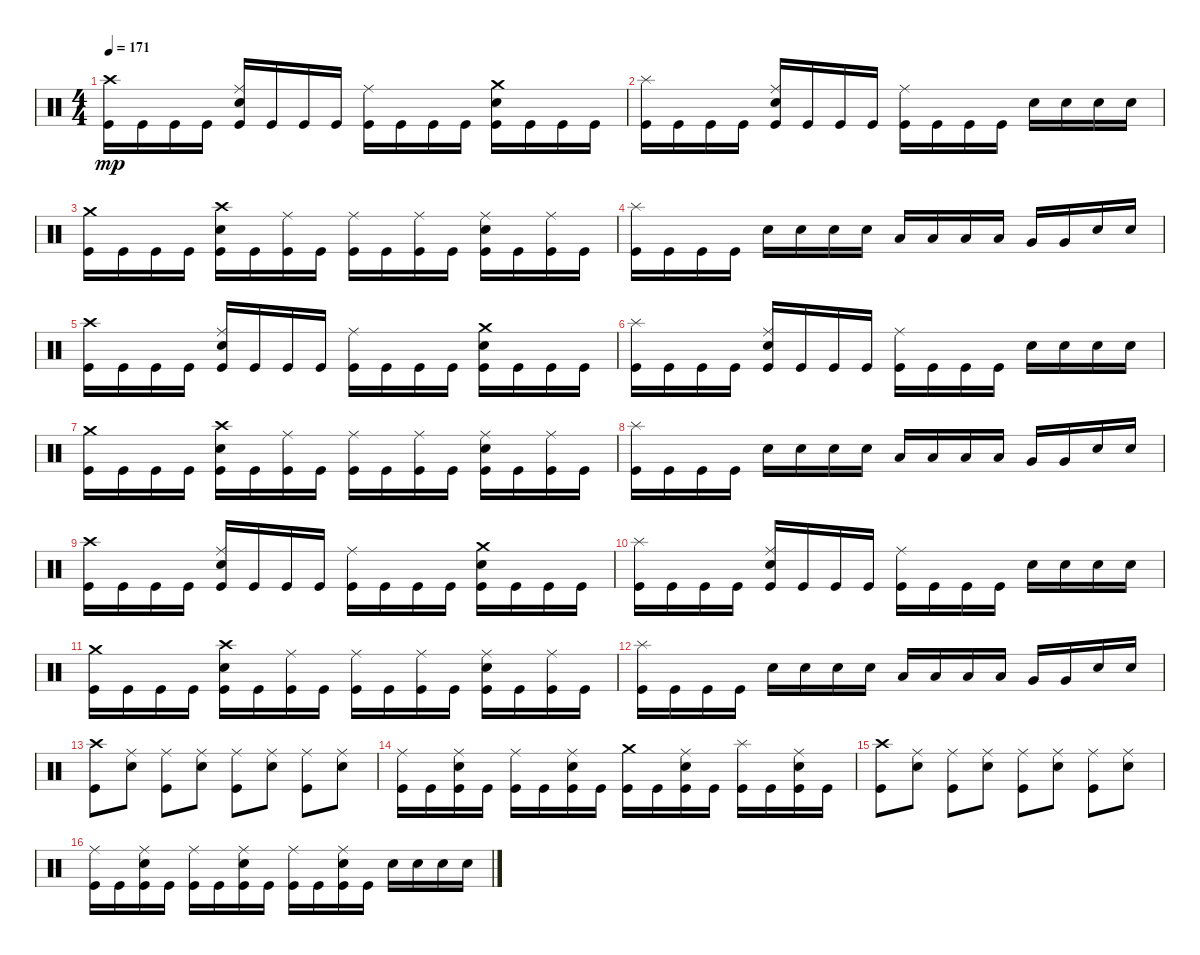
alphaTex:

\track "" {instrument percussion}
\staff {score}
\articulation defaults
\ts (4 4)
\tempo 171
\clef neutral
\ks c
("Kick (hit)" "Crash high (hit)").16{dy mp} "Kick (hit)".16 "Kick (hit)".16 "Kick (hit)".16 ("Kick (hit)" "Ride (middle)" "Snare (hit) 2").16 "Kick (hit)".16 "Kick (hit)".16 "Kick (hit)".16 ("Kick (hit)" "Ride (middle)").16 "Kick (hit)".16 "Kick (hit)".16 "Kick (hit)".16 ("Kick (hit)" "Crash medium (hit)" "Snare (hit) 2").16 "Kick (hit)".16 "Kick (hit)".16 "Kick (hit)".16 |
("Kick (hit)" "Splash (hit)").16 "Kick (hit)".16 "Kick (hit)".16 "Kick (hit)".16 ("Kick (hit)" "Snare (hit) 2" "Ride (middle)").16 "Kick (hit)".16 "Kick (hit)".16 "Kick (hit)".16 ("Kick (hit)" "Ride (middle)").16 "Kick (hit)".16 "Kick (hit)".16 "Kick (hit)".16 "Snare (hit) 2".16 "Snare (hit) 2".16 "Snare (hit) 2".16 "Snare (hit) 2".16 |
("Crash medium (hit)" "Kick (hit)").16 "Kick (hit)".16 "Kick (hit)".16 "Kick (hit)".16 ("Kick (hit)" "Snare (hit) 2" "Crash high (hit)").16 "Kick (hit)".16 ("Kick (hit)" "Ride (middle)").16 "Kick (hit)".16 ("Kick (hit)" "Ride (middle)").16 "Kick (hit)".16 ("Kick (hit)" "Ride (middle)").16 "Kick (hit)".16 ("Kick (hit)" "Snare (hit) 2" "Ride (middle)").16 "Kick (hit)".16 ("Kick (hit)" "Ride (middle)").16 "Kick (hit)".16 |
("Splash (hit)" "Kick (hit)").16 "Kick (hit)".16 "Kick (hit)".16 "Kick (hit)".16 "Snare (hit) 2".16 "Snare (hit) 2".16 "Snare (hit) 2".16 "Snare (hit) 2".16 "Low Tom (hit)".16 "Low Tom (hit)".16 "Low Tom (hit)".16 "Low Tom (hit)".16 "Very Low Tom (hit)".16 "Very Low Tom (hit)".16 "Snare (hit) 2".16 "Snare (hit) 2".16 |
("Kick (hit)" "Crash high (hit)").16 "Kick (hit)".16 "Kick (hit)".16 "Kick (hit)".16 ("Kick (hit)" "Ride (middle)" "Snare (hit) 2").16 "Kick (hit)".16 "Kick (hit)".16 "Kick (hit)".16 ("Kick (hit)" "Ride (middle)").16 "Kick (hit)".16 "Kick (hit)".16 "Kick (hit)".16 ("Kick (hit)" "Crash medium (hit)" "Snare (hit) 2").16 "Kick (hit)".16 "Kick (hit)".16 "Kick (hit)".16 |
("Kick (hit)" "Splash (hit)").16 "Kick (hit)".16 "Kick (hit)".16 "Kick (hit)".16 ("Kick (hit)" "Snare (hit) 2" "Ride (middle)").16 "Kick (hit)".16 "Kick (hit)".16 "Kick (hit)".16 ("Kick (hit)" "Ride (middle)").16 "Kick (hit)".16 "Kick (hit)".16 "Kick (hit)".16 "Snare (hit) 2".16 "Snare (hit) 2".16 "Snare (hit) 2".16 "Snare (hit) 2".16 |
("Crash medium (hit)" "Kick (hit)").16 "Kick (hit)".16 "Kick (hit)".16 "Kick (hit)".16 ("Kick (hit)" "Snare (hit) 2" "Crash high (hit)").16 "Kick (hit)".16 ("Kick (hit)" "Ride (middle)").16 "Kick (hit)".16 ("Kick (hit)" "Ride (middle)").16 "Kick (hit)".16 ("Kick (hit)" "Ride (middle)").16 "Kick (hit)".16 ("Kick (hit)" "Snare (hit) 2" "Ride (middle)").16 "Kick (hit)".16 ("Kick (hit)" "Ride (middle)").16 "Kick (hit)".16 |
("Splash (hit)" "Kick (hit)").16 "Kick (hit)".16 "Kick (hit)".16 "Kick (hit)".16 "Snare (hit) 2".16 "Snare (hit) 2".16 "Snare (hit) 2".16 "Snare (hit) 2".16 "Low Tom (hit)".16 "Low Tom (hit)".16 "Low Tom (hit)".16 "Low Tom (hit)".16 "Very Low Tom (hit)".16 "Very Low Tom (hit)".16 "Snare (hit) 2".16 "Snare (hit) 2".16 |
("Kick (hit)" "Crash high (hit)").16 "Kick (hit)".16 "Kick (hit)".16 "Kick (hit)".16 ("Kick (hit)" "Ride (middle)" "Snare (hit) 2").16 "Kick (hit)".16 "Kick (hit)".16 "Kick (hit)".16 ("Kick (hit)" "Ride (middle)").16 "Kick (hit)".16 "Kick (hit)".16 "Kick (hit)".16 ("Kick (hit)" "Crash medium (hit)" "Snare (hit) 2").16 "Kick (hit)".16 "Kick (hit)".16 "Kick (hit)".16 |
("Kick (hit)" "Splash (hit)").16 "Kick (hit)".16 "Kick (hit)".16 "Kick (hit)".16 ("Kick (hit)" "Snare (hit) 2" "Ride (middle)").16 "Kick (hit)".16 "Kick (hit)".16 "Kick (hit)".16 ("Kick (hit)" "Ride (middle)").16 "Kick (hit)".16 "Kick (hit)".16 "Kick (hit)".16 "Snare (hit) 2".16 "Snare (hit) 2".16 "Snare (hit) 2".16 "Snare (hit) 2".16 |
("Crash medium (hit)" "Kick (hit)").16 "Kick (hit)".16 "Kick (hit)".16 "Kick (hit)".16 ("Kick (hit)" "Snare (hit) 2" "Crash high (hit)").16 "Kick (hit)".16 ("Kick (hit)" "Ride (middle)").16 "Kick (hit)".16 ("Kick (hit)" "Ride (middle)").16 "Kick (hit)".16 ("Kick (hit)" "Ride (middle)").16 "Kick (hit)".16 ("Kick (hit)" "Snare (hit) 2" "Ride (middle)").16 "Kick (hit)".16 ("Kick (hit)" "Ride (middle)").16 "Kick (hit)".16 |
("Splash (hit)" "Kick (hit)").16 "Kick (hit)".16 "Kick (hit)".16 "Kick (hit)".16 "Snare (hit) 2".16 "Snare (hit) 2".16 "Snare (hit) 2".16 "Snare (hit) 2".16 "Low Tom (hit)".16 "Low Tom (hit)".16 "Low Tom (hit)".16 "Low Tom (hit)".16 "Very Low Tom (hit)".16 "Very Low Tom (hit)".16 "Snare (hit) 2".16 "Snare (hit) 2".16 |
("Kick (hit)" "Crash high (hit)").8 ("Snare (hit) 2" "Ride (middle)").8 ("Kick (hit)" "Ride (middle)").8 ("Snare (hit) 2" "Ride (middle)").8 ("Kick (hit)" "Ride (middle)").8 ("Snare (hit) 2" "Ride (middle)").8 ("Ride (middle)" "Kick (hit)").8 ("Snare (hit) 2" "Ride (middle)").8 |
("Kick (hit)" "Ride (middle)").16 "Kick (hit)".16 ("Snare (hit) 2" "Ride (middle)" "Kick (hit)").16 "Kick (hit)".16 ("Kick (hit)" "Ride (middle)").16 "Kick (hit)".16 ("Snare (hit) 2" "Ride (middle)" "Kick (hit)").16 "Kick (hit)".16 ("Kick (hit)" "Crash medium (hit)").16 "Kick (hit)".16 ("Snare (hit) 2" "Ride (middle)" "Kick (hit)").16 "Kick (hit)".16 ("Kick (hit)" "Splash (hit)").16 "Kick (hit)".16 ("Snare (hit) 2" "Ride (middle)" "Kick (hit)").16 "Kick (hit)".16 |
("Kick (hit)" "Crash high (hit)").8 ("Snare (hit) 2" "Ride (middle)").8 ("Kick (hit)" "Ride (middle)").8 ("Snare (hit) 2" "Ride (middle)").8 ("Kick (hit)" "Ride (middle)").8 ("Snare (hit) 2" "Ride (middle)").8 ("Ride (middle)" "Kick (hit)").8 ("Snare (hit) 2" "Ride (middle)").8 |
("Kick (hit)" "Ride (middle)").16 "Kick (hit)".16 ("Snare (hit) 2" "Ride (middle)" "Kick (hit)").16 "Kick (hit)".16 ("Kick (hit)" "Ride (middle)").16 "Kick (hit)".16 ("Snare (hit) 2" "Ride (middle)" "Kick (hit)").16 "Kick (hit)".16 ("Kick (hit)" "Ride (middle)").16 "Kick (hit)".16 ("Snare (hit) 2" "Ride (middle)" "Kick (hit)").16 "Kick (hit)".16 "Snare (hit) 2".16 "Snare (hit) 2".16 "Snare (hit) 2".16 "Snare (hit) 2".16
